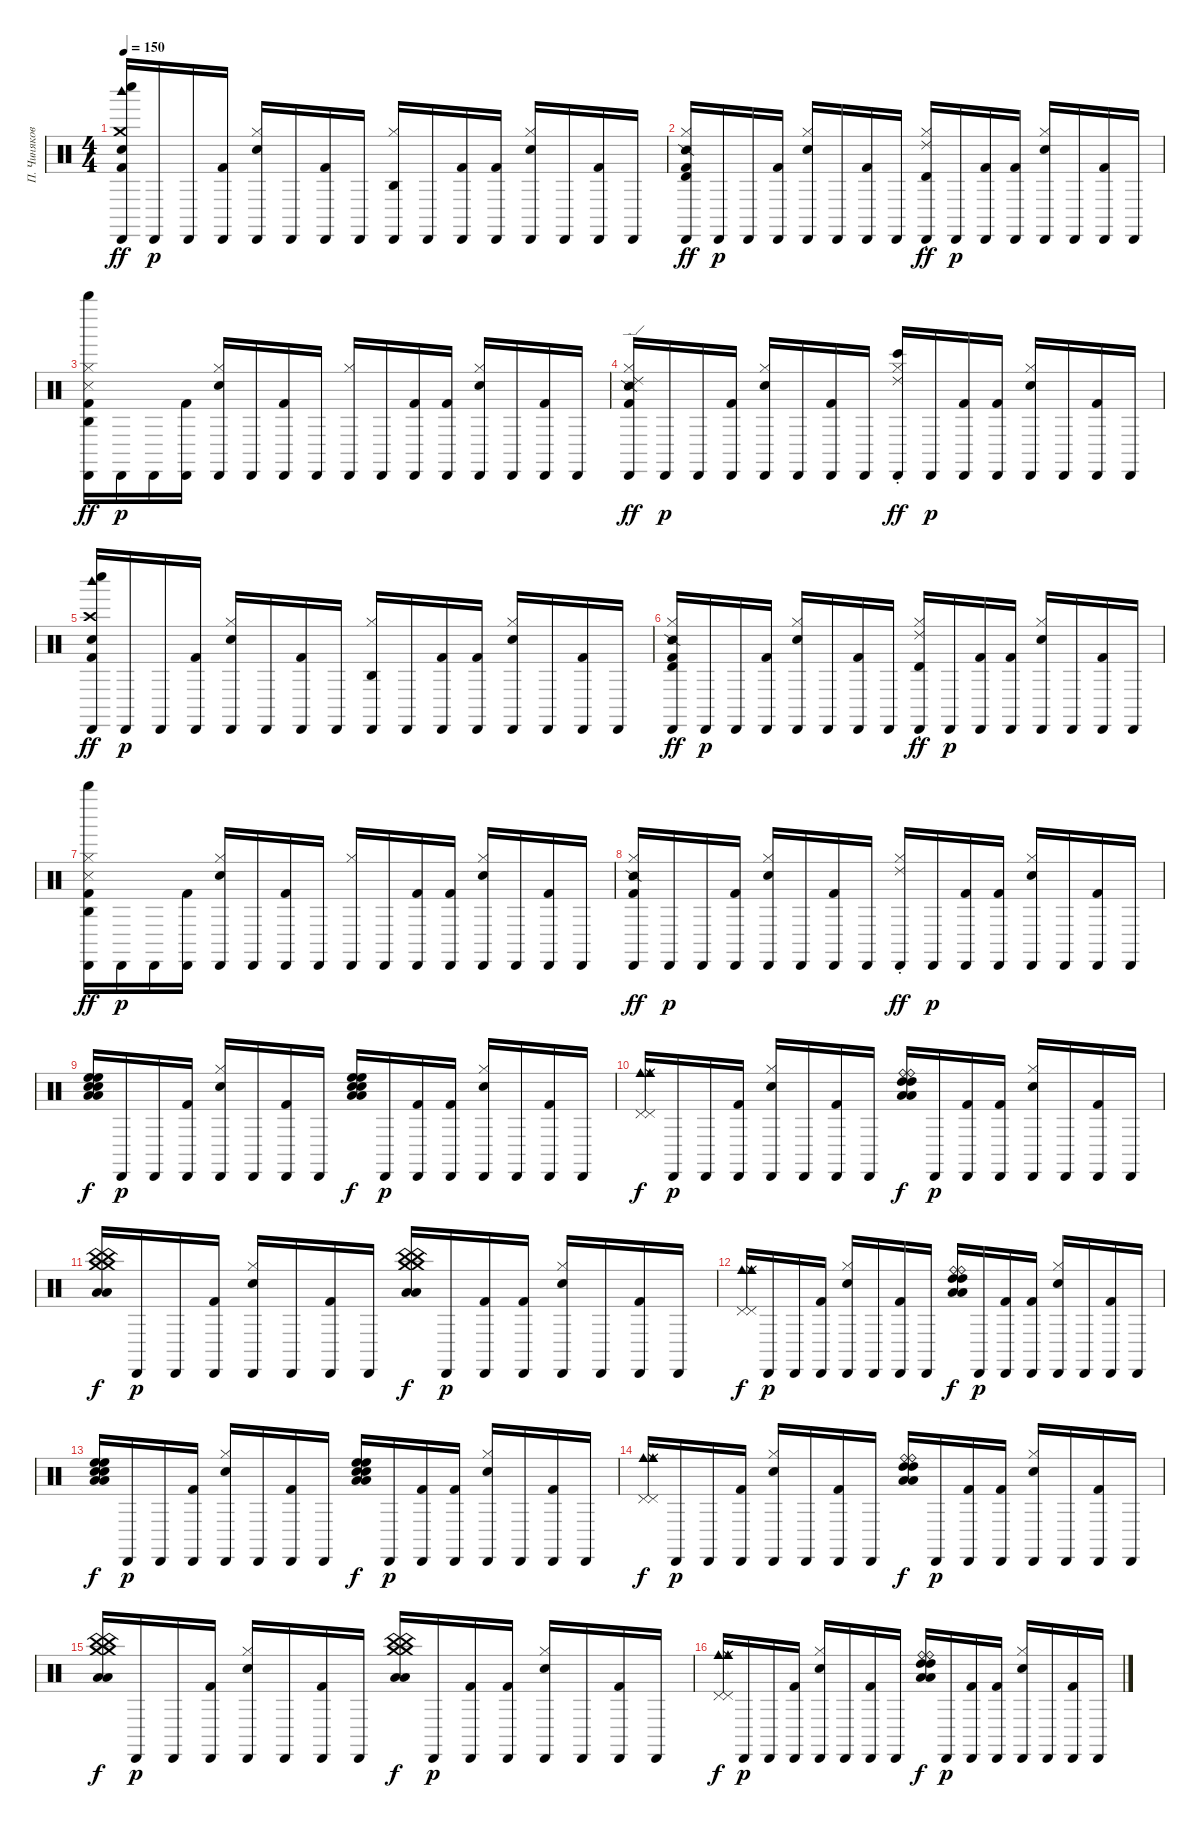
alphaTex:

\track ("П. Чиняков" "П. Чиняков") {instrument percussion}
\staff {score}
\articulation defaults
\ts (4 4)
\tempo 150
\clef neutral
\ks c
("Cabasa (hit)" "Crash medium (hit)" "Kick (hit) 2" "Snare (hit) 2" "Woodblock high (hit)" "Whistle low (hit)").16{dy ff} "Cabasa (hit)".16{dy p} "Cabasa (hit)".16 ("Cabasa (hit)" "Kick (hit) 2").16 ("Hi-Hat (closed)" "Cabasa (hit)" "Snare (hit) 2").16 "Cabasa (hit)".16 ("Cabasa (hit)" "Kick (hit) 2").16 "Cabasa (hit)".16 ("Hi-Hat (closed)" "Cabasa (hit)" "Agogo high (hit)").16 "Cabasa (hit)".16 ("Cabasa (hit)" "Kick (hit) 2").16 ("Cabasa (hit)" "Kick (hit) 2").16 ("Hi-Hat (closed)" "Cabasa (hit)" "Snare (hit) 2").16 "Cabasa (hit)".16 ("Cabasa (hit)" "Kick (hit) 2").16 "Cabasa (hit)".16 |
("Hi-Hat (closed)" "Cabasa (hit)" "Kick (hit) 2" "Snare (side stick) 2" "Timbale high (hit)").16{dy ff} "Cabasa (hit)".16{dy p} "Cabasa (hit)".16 ("Cabasa (hit)" "Kick (hit) 2").16 ("Hi-Hat (closed)" "Cabasa (hit)" "Snare (hit) 2").16 "Cabasa (hit)".16 ("Cabasa (hit)" "Kick (hit) 2").16 "Cabasa (hit)".16 ("Hi-Hat (closed)" "Cabasa (hit)" "Ride (choke) 2" "Timbale high (hit)").16{dy ff} "Cabasa (hit)".16{dy p} ("Cabasa (hit)" "Kick (hit) 2").16 ("Cabasa (hit)" "Kick (hit) 2").16 ("Hi-Hat (closed)" "Cabasa (hit)" "Snare (hit) 2").16 "Cabasa (hit)".16 ("Cabasa (hit)" "Kick (hit) 2").16 "Cabasa (hit)".16 |
("Hi-Hat (closed)" "Cabasa (hit)" "Kick (hit) 2" "Metronome (hit)" "Whistle high (hit)" "Agogo high (hit)").16{dy ff} "Cabasa (hit)".16{dy p} "Cabasa (hit)".16 ("Cabasa (hit)" "Kick (hit) 2").16 ("Hi-Hat (closed)" "Cabasa (hit)" "Snare (hit) 2").16 "Cabasa (hit)".16 ("Cabasa (hit)" "Kick (hit) 2").16 "Cabasa (hit)".16 ("Hi-Hat (closed)" "Cabasa (hit)").16 "Cabasa (hit)".16 ("Cabasa (hit)" "Kick (hit) 2").16 ("Cabasa (hit)" "Kick (hit) 2").16 ("Hi-Hat (closed)" "Cabasa (hit)" "Snare (hit) 2").16 "Cabasa (hit)".16 ("Cabasa (hit)" "Kick (hit) 2").16 "Cabasa (hit)".16 |
("Hi-Hat (closed)" "Cabasa (hit)" "Kick (hit) 2" "Snare (side stick) 2" "Ride (edge) 2").16{dy ff} "Cabasa (hit)".16{dy p} "Cabasa (hit)".16 ("Cabasa (hit)" "Kick (hit) 2").16 ("Hi-Hat (closed)" "Cabasa (hit)" "Snare (hit) 2").16 "Cabasa (hit)".16 ("Cabasa (hit)" "Kick (hit) 2").16 "Cabasa (hit)".16 ("Hi-Hat (closed)" "Cabasa (hit)" "Ride (choke) 2" "Bongo High (hit)").16{dy ff} "Cabasa (hit)".16{dy p} ("Cabasa (hit)" "Kick (hit) 2").16 ("Cabasa (hit)" "Kick (hit) 2").16 ("Hi-Hat (closed)" "Cabasa (hit)" "Snare (hit) 2").16 "Cabasa (hit)".16 ("Cabasa (hit)" "Kick (hit) 2").16 "Cabasa (hit)".16 |
("Cabasa (hit)" "Crash high (hit)" "Kick (hit) 2" "Snare (hit) 2" "Woodblock high (hit)" "Whistle low (hit)").16{dy ff} "Cabasa (hit)".16{dy p} "Cabasa (hit)".16 ("Cabasa (hit)" "Kick (hit) 2").16 ("Hi-Hat (closed)" "Cabasa (hit)" "Snare (hit) 2").16 "Cabasa (hit)".16 ("Cabasa (hit)" "Kick (hit) 2").16 "Cabasa (hit)".16 ("Hi-Hat (closed)" "Cabasa (hit)" "Agogo high (hit)").16 "Cabasa (hit)".16 ("Cabasa (hit)" "Kick (hit) 2").16 ("Cabasa (hit)" "Kick (hit) 2").16 ("Hi-Hat (closed)" "Cabasa (hit)" "Snare (hit) 2").16 "Cabasa (hit)".16 ("Cabasa (hit)" "Kick (hit) 2").16 "Cabasa (hit)".16 |
("Hi-Hat (closed)" "Cabasa (hit)" "Kick (hit) 2" "Snare (side stick) 2" "Timbale high (hit)").16{dy ff} "Cabasa (hit)".16{dy p} "Cabasa (hit)".16 ("Cabasa (hit)" "Kick (hit) 2").16 ("Hi-Hat (closed)" "Cabasa (hit)" "Snare (hit) 2").16 "Cabasa (hit)".16 ("Cabasa (hit)" "Kick (hit) 2").16 "Cabasa (hit)".16 ("Hi-Hat (closed)" "Cabasa (hit)" "Ride (choke) 2" "Timbale high (hit)").16{dy ff} "Cabasa (hit)".16{dy p} ("Cabasa (hit)" "Kick (hit) 2").16 ("Cabasa (hit)" "Kick (hit) 2").16 ("Hi-Hat (closed)" "Cabasa (hit)" "Snare (hit) 2").16 "Cabasa (hit)".16 ("Cabasa (hit)" "Kick (hit) 2").16 "Cabasa (hit)".16 |
("Hi-Hat (closed)" "Cabasa (hit)" "Kick (hit) 2" "Metronome (hit)" "Whistle high (hit)" "Agogo high (hit)").16{dy ff} "Cabasa (hit)".16{dy p} "Cabasa (hit)".16 ("Cabasa (hit)" "Kick (hit) 2").16 ("Hi-Hat (closed)" "Cabasa (hit)" "Snare (hit) 2").16 "Cabasa (hit)".16 ("Cabasa (hit)" "Kick (hit) 2").16 "Cabasa (hit)".16 ("Hi-Hat (closed)" "Cabasa (hit)").16 "Cabasa (hit)".16 ("Cabasa (hit)" "Kick (hit) 2").16 ("Cabasa (hit)" "Kick (hit) 2").16 ("Hi-Hat (closed)" "Cabasa (hit)" "Snare (hit) 2").16 "Cabasa (hit)".16 ("Cabasa (hit)" "Kick (hit) 2").16 "Cabasa (hit)".16 |
("Hi-Hat (closed)" "Cabasa (hit)" "Kick (hit) 2" "Snare (side stick) 2").16{dy ff} "Cabasa (hit)".16{dy p} "Cabasa (hit)".16 ("Cabasa (hit)" "Kick (hit) 2").16 ("Hi-Hat (closed)" "Cabasa (hit)" "Snare (hit) 2").16 "Cabasa (hit)".16 ("Cabasa (hit)" "Kick (hit) 2").16 "Cabasa (hit)".16 ("Hi-Hat (closed)" "Cabasa (hit)" "Ride (choke) 2").16{dy ff} "Cabasa (hit)".16{dy p} ("Cabasa (hit)" "Kick (hit) 2").16 ("Cabasa (hit)" "Kick (hit) 2").16 ("Hi-Hat (closed)" "Cabasa (hit)" "Snare (hit) 2").16 "Cabasa (hit)".16 ("Cabasa (hit)" "Kick (hit) 2").16 "Cabasa (hit)".16 |
("High Floor Tom (hit)" "Low Tom (hit)" "Snare (hit) 2" "High Floor Tom (hit)" "Low Tom (hit)" "Snare (hit) 2").16{dy f} "Cabasa (hit)".16{dy p} "Cabasa (hit)".16 ("Cabasa (hit)" "Kick (hit) 2").16 ("Hi-Hat (closed)" "Cabasa (hit)" "Snare (hit) 2").16 "Cabasa (hit)".16 ("Cabasa (hit)" "Kick (hit) 2").16 "Cabasa (hit)".16 ("High Floor Tom (hit)" "Low Tom (hit)" "Snare (hit) 2" "High Floor Tom (hit)" "Low Tom (hit)" "Snare (hit) 2").16{dy f} "Cabasa (hit)".16{dy p} ("Cabasa (hit)" "Kick (hit) 2").16 ("Cabasa (hit)" "Kick (hit) 2").16 ("Hi-Hat (closed)" "Cabasa (hit)" "Snare (hit) 2").16 "Cabasa (hit)".16 ("Cabasa (hit)" "Kick (hit) 2").16 "Cabasa (hit)".16 |
("Cowbell medium (hit)" "Ride (middle)" "Pedal Hi-Hat (hit)" "Cowbell medium (hit)" "Ride (middle)" "Pedal Hi-Hat (hit)").16{dy f} "Cabasa (hit)".16{dy p} "Cabasa (hit)".16 ("Cabasa (hit)" "Kick (hit) 2").16 ("Hi-Hat (closed)" "Cabasa (hit)" "Snare (hit) 2").16 "Cabasa (hit)".16 ("Cabasa (hit)" "Kick (hit) 2").16 "Cabasa (hit)".16 ("Ride (bell)" "High Tom (hit)" "Low Floor Tom (hit)" "Ride (bell)" "High Tom (hit)" "Low Floor Tom (hit)").16{dy f} "Cabasa (hit)".16{dy p} ("Cabasa (hit)" "Kick (hit) 2").16 ("Cabasa (hit)" "Kick (hit) 2").16 ("Hi-Hat (closed)" "Cabasa (hit)" "Snare (hit) 2").16 "Cabasa (hit)".16 ("Cabasa (hit)" "Kick (hit) 2").16 "Cabasa (hit)".16 |
("Crash medium (hit)" "China (hit)" "Low Tom (hit)" "Crash medium (hit)" "China (hit)" "Low Tom (hit)").16{dy f} "Cabasa (hit)".16{dy p} "Cabasa (hit)".16 ("Cabasa (hit)" "Kick (hit) 2").16 ("Hi-Hat (closed)" "Cabasa (hit)" "Snare (hit) 2").16 "Cabasa (hit)".16 ("Cabasa (hit)" "Kick (hit) 2").16 "Cabasa (hit)".16 ("Crash medium (hit)" "China (hit)" "Low Tom (hit)" "Crash medium (hit)" "China (hit)" "Low Tom (hit)").16{dy f} "Cabasa (hit)".16{dy p} ("Cabasa (hit)" "Kick (hit) 2").16 ("Cabasa (hit)" "Kick (hit) 2").16 ("Hi-Hat (closed)" "Cabasa (hit)" "Snare (hit) 2").16 "Cabasa (hit)".16 ("Cabasa (hit)" "Kick (hit) 2").16 "Cabasa (hit)".16 |
("Cowbell medium (hit)" "Ride (middle)" "Pedal Hi-Hat (hit)" "Cowbell medium (hit)" "Ride (middle)" "Pedal Hi-Hat (hit)").16{dy f} "Cabasa (hit)".16{dy p} "Cabasa (hit)".16 ("Cabasa (hit)" "Kick (hit) 2").16 ("Hi-Hat (closed)" "Cabasa (hit)" "Snare (hit) 2").16 "Cabasa (hit)".16 ("Cabasa (hit)" "Kick (hit) 2").16 "Cabasa (hit)".16 ("Ride (bell)" "High Tom (hit)" "Low Floor Tom (hit)" "Ride (bell)" "High Tom (hit)" "Low Floor Tom (hit)").16{dy f} "Cabasa (hit)".16{dy p} ("Cabasa (hit)" "Kick (hit) 2").16 ("Cabasa (hit)" "Kick (hit) 2").16 ("Hi-Hat (closed)" "Cabasa (hit)" "Snare (hit) 2").16 "Cabasa (hit)".16 ("Cabasa (hit)" "Kick (hit) 2").16 "Cabasa (hit)".16 |
("High Floor Tom (hit)" "Low Tom (hit)" "Snare (hit) 2" "High Floor Tom (hit)" "Low Tom (hit)" "Snare (hit) 2").16{dy f} "Cabasa (hit)".16{dy p} "Cabasa (hit)".16 ("Cabasa (hit)" "Kick (hit) 2").16 ("Hi-Hat (closed)" "Cabasa (hit)" "Snare (hit) 2").16 "Cabasa (hit)".16 ("Cabasa (hit)" "Kick (hit) 2").16 "Cabasa (hit)".16 ("High Floor Tom (hit)" "Low Tom (hit)" "Snare (hit) 2" "High Floor Tom (hit)" "Low Tom (hit)" "Snare (hit) 2").16{dy f} "Cabasa (hit)".16{dy p} ("Cabasa (hit)" "Kick (hit) 2").16 ("Cabasa (hit)" "Kick (hit) 2").16 ("Hi-Hat (closed)" "Cabasa (hit)" "Snare (hit) 2").16 "Cabasa (hit)".16 ("Cabasa (hit)" "Kick (hit) 2").16 "Cabasa (hit)".16 |
("Cowbell medium (hit)" "Ride (middle)" "Pedal Hi-Hat (hit)" "Cowbell medium (hit)" "Ride (middle)" "Pedal Hi-Hat (hit)").16{dy f} "Cabasa (hit)".16{dy p} "Cabasa (hit)".16 ("Cabasa (hit)" "Kick (hit) 2").16 ("Hi-Hat (closed)" "Cabasa (hit)" "Snare (hit) 2").16 "Cabasa (hit)".16 ("Cabasa (hit)" "Kick (hit) 2").16 "Cabasa (hit)".16 ("Ride (bell)" "High Tom (hit)" "Low Floor Tom (hit)" "Ride (bell)" "High Tom (hit)" "Low Floor Tom (hit)").16{dy f} "Cabasa (hit)".16{dy p} ("Cabasa (hit)" "Kick (hit) 2").16 ("Cabasa (hit)" "Kick (hit) 2").16 ("Hi-Hat (closed)" "Cabasa (hit)" "Snare (hit) 2").16 "Cabasa (hit)".16 ("Cabasa (hit)" "Kick (hit) 2").16 "Cabasa (hit)".16 |
("Crash medium (hit)" "China (hit)" "Low Tom (hit)" "Crash medium (hit)" "China (hit)" "Low Tom (hit)").16{dy f} "Cabasa (hit)".16{dy p} "Cabasa (hit)".16 ("Cabasa (hit)" "Kick (hit) 2").16 ("Hi-Hat (closed)" "Cabasa (hit)" "Snare (hit) 2").16 "Cabasa (hit)".16 ("Cabasa (hit)" "Kick (hit) 2").16 "Cabasa (hit)".16 ("Crash medium (hit)" "China (hit)" "Low Tom (hit)" "Crash medium (hit)" "China (hit)" "Low Tom (hit)").16{dy f} "Cabasa (hit)".16{dy p} ("Cabasa (hit)" "Kick (hit) 2").16 ("Cabasa (hit)" "Kick (hit) 2").16 ("Hi-Hat (closed)" "Cabasa (hit)" "Snare (hit) 2").16 "Cabasa (hit)".16 ("Cabasa (hit)" "Kick (hit) 2").16 "Cabasa (hit)".16 |
("Cowbell medium (hit)" "Ride (middle)" "Pedal Hi-Hat (hit)" "Cowbell medium (hit)" "Ride (middle)" "Pedal Hi-Hat (hit)").16{dy f} "Cabasa (hit)".16{dy p} "Cabasa (hit)".16 ("Cabasa (hit)" "Kick (hit) 2").16 ("Hi-Hat (closed)" "Cabasa (hit)" "Snare (hit) 2").16 "Cabasa (hit)".16 ("Cabasa (hit)" "Kick (hit) 2").16 "Cabasa (hit)".16 ("Ride (bell)" "High Tom (hit)" "Low Floor Tom (hit)" "Ride (bell)" "High Tom (hit)" "Low Floor Tom (hit)").16{dy f} "Cabasa (hit)".16{dy p} ("Cabasa (hit)" "Kick (hit) 2").16 ("Cabasa (hit)" "Kick (hit) 2").16 ("Hi-Hat (closed)" "Cabasa (hit)" "Snare (hit) 2").16 "Cabasa (hit)".16 ("Cabasa (hit)" "Kick (hit) 2").16 "Cabasa (hit)".16
